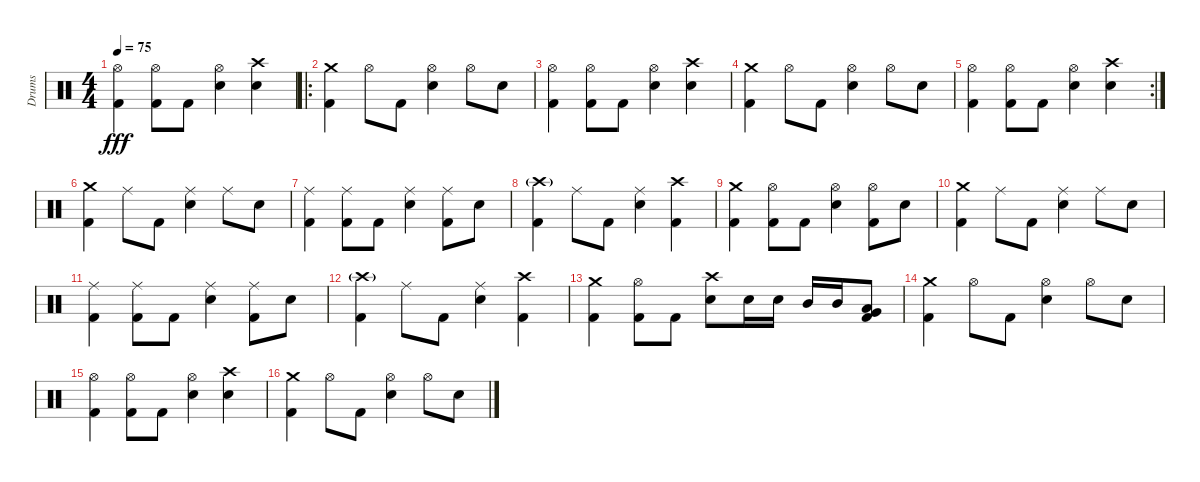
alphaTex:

\track ("Drums" "Drums") {instrument percussion}
\staff {score}
\articulation defaults
\ts (4 4)
\tempo 75
\clef neutral
\ks c
("Hi-Hat (open)" "Kick (hit) 2").4{dy fff} ("Hi-Hat (open)" "Kick (hit) 2").8 "Kick (hit) 2".8 ("Hi-Hat (open)" "Snare (hit) 2").4 ("Crash high (hit)" "Snare (hit) 2").4 |
\ro
("Crash medium (hit)" "Kick (hit) 2").4 "Hi-Hat (open)".8 "Kick (hit) 2".8 ("Hi-Hat (open)" "Snare (hit) 2").4 "Hi-Hat (open)".8 "Snare (hit) 2".8 |
("Hi-Hat (open)" "Kick (hit) 2").4 ("Hi-Hat (open)" "Kick (hit) 2").8 "Kick (hit) 2".8 ("Hi-Hat (open)" "Snare (hit) 2").4 ("Crash high (hit)" "Snare (hit) 2").4 |
("Crash medium (hit)" "Kick (hit) 2").4 "Hi-Hat (open)".8 "Kick (hit) 2".8 ("Hi-Hat (open)" "Snare (hit) 2").4 "Hi-Hat (open)".8 "Snare (hit) 2".8 |
\rc 2
("Hi-Hat (open)" "Kick (hit) 2").4 ("Hi-Hat (open)" "Kick (hit) 2").8 "Kick (hit) 2".8 ("Hi-Hat (open)" "Snare (hit) 2").4 ("Crash high (hit)" "Snare (hit) 2").4 |
("Crash medium (hit)" "Kick (hit) 2").4 "Ride (middle)".8 "Kick (hit) 2".8 ("Ride (middle)" "Snare (hit) 2").4 "Ride (middle)".8 "Snare (hit) 2".8 |
("Ride (middle)" "Kick (hit) 2").4 ("Ride (middle)" "Kick (hit) 2").8 "Kick (hit) 2".8 ("Ride (middle)" "Snare (hit) 2").4 ("Ride (middle)" "Kick (hit) 2").8 "Snare (hit) 2".8 |
("Crash high (hit)"{g} "Kick (hit) 2").4 "Ride (middle)".8 "Kick (hit) 2".8 ("Ride (middle)" "Snare (hit) 2").4 ("Crash high (hit)" "Kick (hit) 2").4 |
("Crash medium (hit)" "Kick (hit) 2").4 ("Hi-Hat (open)" "Kick (hit) 2").8 "Kick (hit) 2".8 ("Hi-Hat (open)" "Snare (hit) 2").4 ("Hi-Hat (open)" "Kick (hit) 2").8 "Snare (hit) 2".8 |
("Crash medium (hit)" "Kick (hit) 2").4 "Ride (middle)".8 "Kick (hit) 2".8 ("Ride (middle)" "Snare (hit) 2").4 "Ride (middle)".8 "Snare (hit) 2".8 |
("Ride (middle)" "Kick (hit) 2").4 ("Ride (middle)" "Kick (hit) 2").8 "Kick (hit) 2".8 ("Ride (middle)" "Snare (hit) 2").4 ("Ride (middle)" "Kick (hit) 2").8 "Snare (hit) 2".8 |
("Crash high (hit)"{g} "Kick (hit) 2").4 "Ride (middle)".8 "Kick (hit) 2".8 ("Ride (middle)" "Snare (hit) 2").4 ("Crash high (hit)" "Kick (hit) 2").4 |
("Crash medium (hit)" "Kick (hit) 2").4 ("Hi-Hat (open)" "Kick (hit) 2").8 "Kick (hit) 2".8 ("Crash high (hit)" "Snare (hit) 2").8 "Snare (hit) 2".16 "Snare (hit) 2".16 "Mid Tom (hit)".16 "Mid Tom (hit)".16 ("Very Low Tom (hit)" "Low Floor Tom (hit)" "Kick (hit) 2").8 |
("Crash medium (hit)" "Kick (hit) 2").4 "Hi-Hat (open)".8 "Kick (hit) 2".8 ("Hi-Hat (open)" "Snare (hit) 2").4 "Hi-Hat (open)".8 "Snare (hit) 2".8 |
("Hi-Hat (open)" "Kick (hit) 2").4 ("Hi-Hat (open)" "Kick (hit) 2").8 "Kick (hit) 2".8 ("Hi-Hat (open)" "Snare (hit) 2").4 ("Crash high (hit)" "Snare (hit) 2").4 |
("Crash medium (hit)" "Kick (hit) 2").4 "Hi-Hat (open)".8 "Kick (hit) 2".8 ("Hi-Hat (open)" "Snare (hit) 2").4 "Hi-Hat (open)".8 "Snare (hit) 2".8
